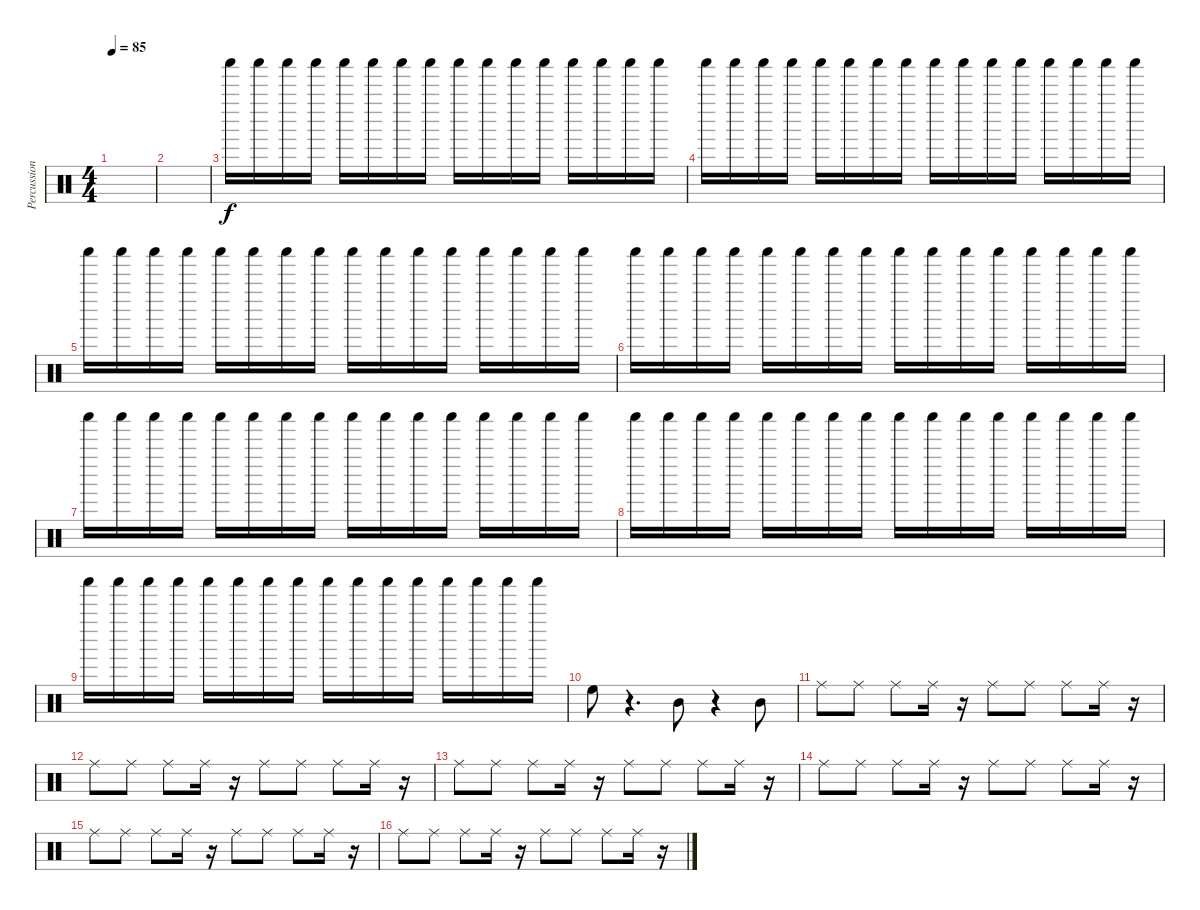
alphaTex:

\track ("Percussion" "Percussion") {instrument percussion}
\staff {score}
\articulation defaults
\ts (4 4)
\tempo 85
\clef neutral
\ks c
|
|
"Shaker (hit)".16 "Shaker (hit)".16 "Shaker (hit)".16 "Shaker (hit)".16 "Shaker (hit)".16 "Shaker (hit)".16 "Shaker (hit)".16 "Shaker (hit)".16 "Shaker (hit)".16 "Shaker (hit)".16 "Shaker (hit)".16 "Shaker (hit)".16 "Shaker (hit)".16 "Shaker (hit)".16 "Shaker (hit)".16 "Shaker (hit)".16 |
"Shaker (hit)".16 "Shaker (hit)".16 "Shaker (hit)".16 "Shaker (hit)".16 "Shaker (hit)".16 "Shaker (hit)".16 "Shaker (hit)".16 "Shaker (hit)".16 "Shaker (hit)".16 "Shaker (hit)".16 "Shaker (hit)".16 "Shaker (hit)".16 "Shaker (hit)".16 "Shaker (hit)".16 "Shaker (hit)".16 "Shaker (hit)".16 |
"Shaker (hit)".16 "Shaker (hit)".16 "Shaker (hit)".16 "Shaker (hit)".16 "Shaker (hit)".16 "Shaker (hit)".16 "Shaker (hit)".16 "Shaker (hit)".16 "Shaker (hit)".16 "Shaker (hit)".16 "Shaker (hit)".16 "Shaker (hit)".16 "Shaker (hit)".16 "Shaker (hit)".16 "Shaker (hit)".16 "Shaker (hit)".16 |
"Shaker (hit)".16 "Shaker (hit)".16 "Shaker (hit)".16 "Shaker (hit)".16 "Shaker (hit)".16 "Shaker (hit)".16 "Shaker (hit)".16 "Shaker (hit)".16 "Shaker (hit)".16 "Shaker (hit)".16 "Shaker (hit)".16 "Shaker (hit)".16 "Shaker (hit)".16 "Shaker (hit)".16 "Shaker (hit)".16 "Shaker (hit)".16 |
"Shaker (hit)".16 "Shaker (hit)".16 "Shaker (hit)".16 "Shaker (hit)".16 "Shaker (hit)".16 "Shaker (hit)".16 "Shaker (hit)".16 "Shaker (hit)".16 "Shaker (hit)".16 "Shaker (hit)".16 "Shaker (hit)".16 "Shaker (hit)".16 "Shaker (hit)".16 "Shaker (hit)".16 "Shaker (hit)".16 "Shaker (hit)".16 |
"Shaker (hit)".16 "Shaker (hit)".16 "Shaker (hit)".16 "Shaker (hit)".16 "Shaker (hit)".16 "Shaker (hit)".16 "Shaker (hit)".16 "Shaker (hit)".16 "Shaker (hit)".16 "Shaker (hit)".16 "Shaker (hit)".16 "Shaker (hit)".16 "Shaker (hit)".16 "Shaker (hit)".16 "Shaker (hit)".16 "Shaker (hit)".16 |
"Shaker (hit)".16 "Shaker (hit)".16 "Shaker (hit)".16 "Shaker (hit)".16 "Shaker (hit)".16 "Shaker (hit)".16 "Shaker (hit)".16 "Shaker (hit)".16 "Shaker (hit)".16 "Shaker (hit)".16 "Shaker (hit)".16 "Shaker (hit)".16 "Shaker (hit)".16 "Shaker (hit)".16 "Shaker (hit)".16 "Shaker (hit)".16 |
"High Floor Tom (hit)".8 r.4{d} "Mid Tom (hit)".8 r.4 "Mid Tom (hit)".8 |
"Ride (middle)".8 "Ride (middle)".8 "Ride (middle)".8 "Ride (middle)".16 r.16 "Ride (middle)".8 "Ride (middle)".8 "Ride (middle)".8 "Ride (middle)".16 r.16 |
"Ride (middle)".8 "Ride (middle)".8 "Ride (middle)".8 "Ride (middle)".16 r.16 "Ride (middle)".8 "Ride (middle)".8 "Ride (middle)".8 "Ride (middle)".16 r.16 |
"Ride (middle)".8 "Ride (middle)".8 "Ride (middle)".8 "Ride (middle)".16 r.16 "Ride (middle)".8 "Ride (middle)".8 "Ride (middle)".8 "Ride (middle)".16 r.16 |
"Ride (middle)".8 "Ride (middle)".8 "Ride (middle)".8 "Ride (middle)".16 r.16 "Ride (middle)".8 "Ride (middle)".8 "Ride (middle)".8 "Ride (middle)".16 r.16 |
"Ride (middle)".8 "Ride (middle)".8 "Ride (middle)".8 "Ride (middle)".16 r.16 "Ride (middle)".8 "Ride (middle)".8 "Ride (middle)".8 "Ride (middle)".16 r.16 |
"Ride (middle)".8 "Ride (middle)".8 "Ride (middle)".8 "Ride (middle)".16 r.16 "Ride (middle)".8 "Ride (middle)".8 "Ride (middle)".8 "Ride (middle)".16 r.16
